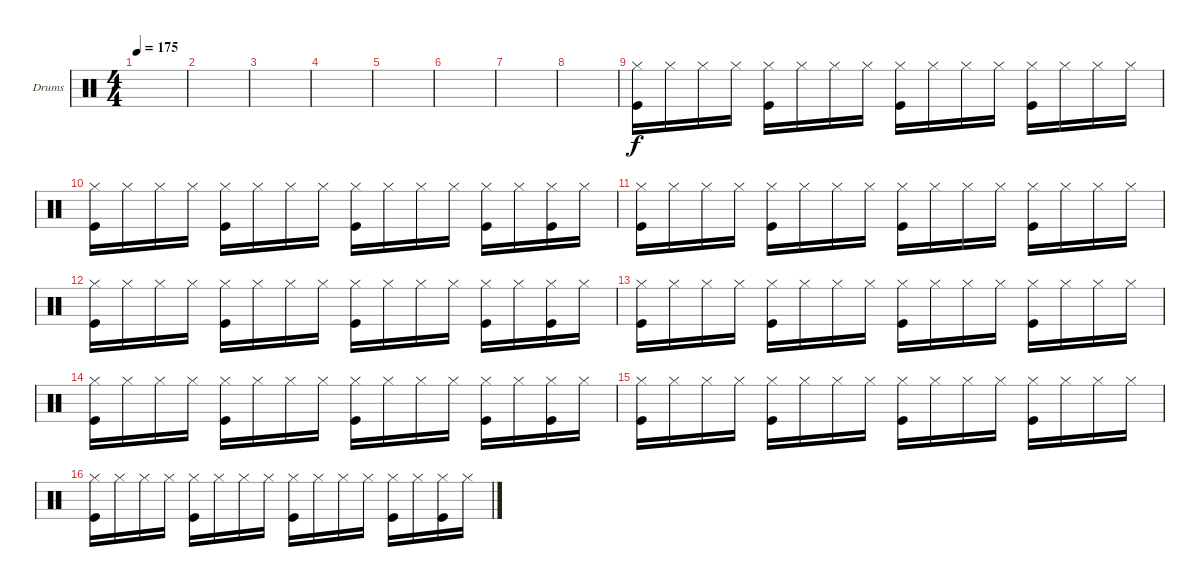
\defaultSystemsLayout 4
\bracketExtendMode groupsimilarinstruments
\firstSystemTrackNameOrientation horizontal
\otherSystemsTrackNameOrientation horizontal
\track ("Drumkit" "Drums") {instrument percussion}
\staff {score}
\articulation defaults
\ts (4 4)
\tempo 175
\clef neutral
\ks c
|
|
|
|
|
|
|
|
("Hi-Hat (closed)" "Kick (hit)").16 "Hi-Hat (closed)".16 "Hi-Hat (closed)".16 "Hi-Hat (closed)".16 ("Hi-Hat (closed)" "Kick (hit)").16 "Hi-Hat (closed)".16 "Hi-Hat (closed)".16 "Hi-Hat (closed)".16 ("Hi-Hat (closed)" "Kick (hit)").16 "Hi-Hat (closed)".16 "Hi-Hat (closed)".16 "Hi-Hat (closed)".16 ("Hi-Hat (closed)" "Kick (hit)").16 "Hi-Hat (closed)".16 "Hi-Hat (closed)".16 "Hi-Hat (closed)".16 |
("Hi-Hat (closed)" "Kick (hit)").16 "Hi-Hat (closed)".16 "Hi-Hat (closed)".16 "Hi-Hat (closed)".16 ("Hi-Hat (closed)" "Kick (hit)").16 "Hi-Hat (closed)".16 "Hi-Hat (closed)".16 "Hi-Hat (closed)".16 ("Hi-Hat (closed)" "Kick (hit)").16 "Hi-Hat (closed)".16 "Hi-Hat (closed)".16 "Hi-Hat (closed)".16 ("Hi-Hat (closed)" "Kick (hit)").16 "Hi-Hat (closed)".16 ("Hi-Hat (closed)" "Kick (hit)").16 "Hi-Hat (closed)".16 |
("Hi-Hat (closed)" "Kick (hit)").16 "Hi-Hat (closed)".16 "Hi-Hat (closed)".16 "Hi-Hat (closed)".16 ("Hi-Hat (closed)" "Kick (hit)").16 "Hi-Hat (closed)".16 "Hi-Hat (closed)".16 "Hi-Hat (closed)".16 ("Hi-Hat (closed)" "Kick (hit)").16 "Hi-Hat (closed)".16 "Hi-Hat (closed)".16 "Hi-Hat (closed)".16 ("Hi-Hat (closed)" "Kick (hit)").16 "Hi-Hat (closed)".16 "Hi-Hat (closed)".16 "Hi-Hat (closed)".16 |
("Hi-Hat (closed)" "Kick (hit)").16 "Hi-Hat (closed)".16 "Hi-Hat (closed)".16 "Hi-Hat (closed)".16 ("Hi-Hat (closed)" "Kick (hit)").16 "Hi-Hat (closed)".16 "Hi-Hat (closed)".16 "Hi-Hat (closed)".16 ("Hi-Hat (closed)" "Kick (hit)").16 "Hi-Hat (closed)".16 "Hi-Hat (closed)".16 "Hi-Hat (closed)".16 ("Hi-Hat (closed)" "Kick (hit)").16 "Hi-Hat (closed)".16 ("Hi-Hat (closed)" "Kick (hit)").16 "Hi-Hat (closed)".16 |
("Hi-Hat (closed)" "Kick (hit)").16 "Hi-Hat (closed)".16 "Hi-Hat (closed)".16 "Hi-Hat (closed)".16 ("Hi-Hat (closed)" "Kick (hit)").16 "Hi-Hat (closed)".16 "Hi-Hat (closed)".16 "Hi-Hat (closed)".16 ("Hi-Hat (closed)" "Kick (hit)").16 "Hi-Hat (closed)".16 "Hi-Hat (closed)".16 "Hi-Hat (closed)".16 ("Hi-Hat (closed)" "Kick (hit)").16 "Hi-Hat (closed)".16 "Hi-Hat (closed)".16 "Hi-Hat (closed)".16 |
("Hi-Hat (closed)" "Kick (hit)").16 "Hi-Hat (closed)".16 "Hi-Hat (closed)".16 "Hi-Hat (closed)".16 ("Hi-Hat (closed)" "Kick (hit)").16 "Hi-Hat (closed)".16 "Hi-Hat (closed)".16 "Hi-Hat (closed)".16 ("Hi-Hat (closed)" "Kick (hit)").16 "Hi-Hat (closed)".16 "Hi-Hat (closed)".16 "Hi-Hat (closed)".16 ("Hi-Hat (closed)" "Kick (hit)").16 "Hi-Hat (closed)".16 ("Hi-Hat (closed)" "Kick (hit)").16 "Hi-Hat (closed)".16 |
("Hi-Hat (closed)" "Kick (hit)").16 "Hi-Hat (closed)".16 "Hi-Hat (closed)".16 "Hi-Hat (closed)".16 ("Hi-Hat (closed)" "Kick (hit)").16 "Hi-Hat (closed)".16 "Hi-Hat (closed)".16 "Hi-Hat (closed)".16 ("Hi-Hat (closed)" "Kick (hit)").16 "Hi-Hat (closed)".16 "Hi-Hat (closed)".16 "Hi-Hat (closed)".16 ("Hi-Hat (closed)" "Kick (hit)").16 "Hi-Hat (closed)".16 "Hi-Hat (closed)".16 "Hi-Hat (closed)".16 |
("Hi-Hat (closed)" "Kick (hit)").16 "Hi-Hat (closed)".16 "Hi-Hat (closed)".16 "Hi-Hat (closed)".16 ("Hi-Hat (closed)" "Kick (hit)").16 "Hi-Hat (closed)".16 "Hi-Hat (closed)".16 "Hi-Hat (closed)".16 ("Hi-Hat (closed)" "Kick (hit)").16 "Hi-Hat (closed)".16 "Hi-Hat (closed)".16 "Hi-Hat (closed)".16 ("Hi-Hat (closed)" "Kick (hit)").16 "Hi-Hat (closed)".16 ("Hi-Hat (closed)" "Kick (hit)").16 "Hi-Hat (closed)".16
